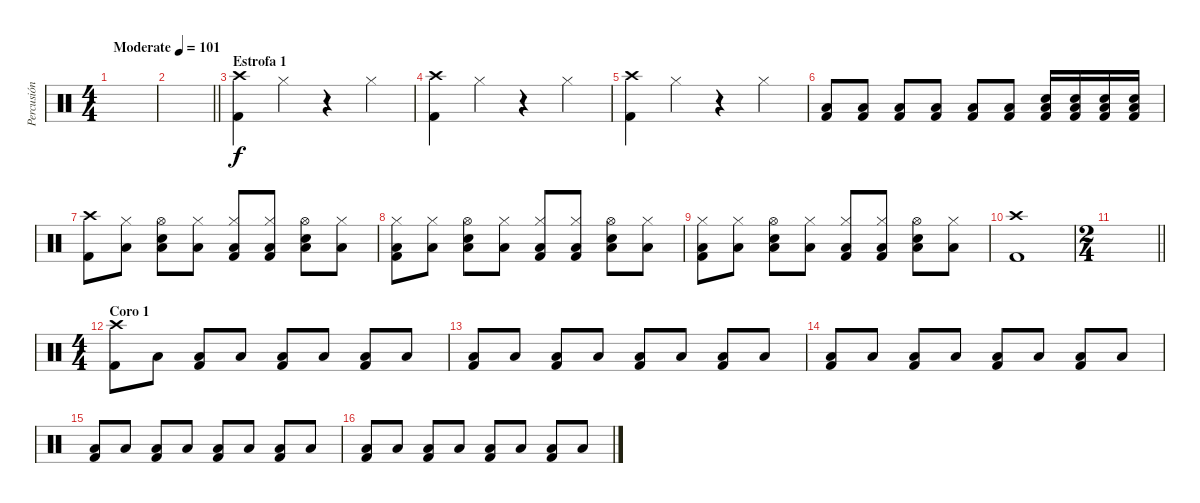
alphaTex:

\track ("Percusión" "Percusión") {instrument percussion}
\staff {score}
\articulation defaults
\ts (4 4)
\tempo (101 "Moderate")
\clef neutral
\ks c
|
\barLineRight lightlight
|
\section ("" "Estrofa 1")
("Kick (hit) 2" "Crash high (hit)").4 "Hi-Hat (closed)".4 r.4 "Hi-Hat (closed)".4 |
("Kick (hit) 2" "Crash high (hit)").4 "Hi-Hat (closed)".4 r.4 "Hi-Hat (closed)".4 |
("Kick (hit) 2" "Crash high (hit)").4 "Hi-Hat (closed)".4 r.4 "Hi-Hat (closed)".4 |
("Low Floor Tom (hit)" "Kick (hit) 2").8 ("Low Floor Tom (hit)" "Kick (hit) 2").8 ("Low Floor Tom (hit)" "Kick (hit) 2").8 ("Low Floor Tom (hit)" "Kick (hit) 2").8 ("Low Floor Tom (hit)" "Kick (hit) 2").8 ("Low Floor Tom (hit)" "Kick (hit) 2").8 ("Snare (hit) 2" "Low Floor Tom (hit)" "Kick (hit) 2").16 ("Snare (hit) 2" "Low Floor Tom (hit)" "Kick (hit) 2").16 ("Snare (hit) 2" "Low Floor Tom (hit)" "Kick (hit) 2").16 ("Snare (hit) 2" "Low Floor Tom (hit)" "Kick (hit) 2").16 |
("Kick (hit) 2" "Crash high (hit)").8 ("Low Floor Tom (hit)" "Hi-Hat (closed)").8 ("Low Floor Tom (hit)" "Hi-Hat (open)" "Snare (hit) 2").8 ("Low Floor Tom (hit)" "Hi-Hat (closed)").8 ("Low Floor Tom (hit)" "Hi-Hat (closed)" "Kick (hit) 2").8 ("Low Floor Tom (hit)" "Hi-Hat (closed)" "Kick (hit) 2").8 ("Low Floor Tom (hit)" "Hi-Hat (open)" "Snare (hit) 2").8 ("Low Floor Tom (hit)" "Hi-Hat (closed)").8 |
("Low Floor Tom (hit)" "Hi-Hat (closed)" "Kick (hit) 2").8 ("Low Floor Tom (hit)" "Hi-Hat (closed)").8 ("Low Floor Tom (hit)" "Hi-Hat (open)" "Snare (hit) 2").8 ("Low Floor Tom (hit)" "Hi-Hat (closed)").8 ("Low Floor Tom (hit)" "Hi-Hat (closed)" "Kick (hit) 2").8 ("Low Floor Tom (hit)" "Hi-Hat (closed)" "Kick (hit) 2").8 ("Low Floor Tom (hit)" "Hi-Hat (open)" "Snare (hit) 2").8 ("Low Floor Tom (hit)" "Hi-Hat (closed)").8 |
("Low Floor Tom (hit)" "Hi-Hat (closed)" "Kick (hit) 2").8 ("Low Floor Tom (hit)" "Hi-Hat (closed)").8 ("Low Floor Tom (hit)" "Hi-Hat (open)" "Snare (hit) 2").8 ("Low Floor Tom (hit)" "Hi-Hat (closed)").8 ("Low Floor Tom (hit)" "Hi-Hat (closed)" "Kick (hit) 2").8 ("Low Floor Tom (hit)" "Hi-Hat (closed)" "Kick (hit) 2").8 ("Low Floor Tom (hit)" "Hi-Hat (open)" "Snare (hit) 2").8 ("Low Floor Tom (hit)" "Hi-Hat (closed)").8 |
("Kick (hit) 2" "Crash high (hit)").1 |
\ts (2 4)
\barLineRight lightlight
|
\ts (4 4)
\section ("" "Coro 1")
("Kick (hit) 2" "Crash high (hit)").8 "Low Floor Tom (hit)".8 ("Low Floor Tom (hit)" "Kick (hit) 2").8 "Low Floor Tom (hit)".8 ("Low Floor Tom (hit)" "Kick (hit) 2").8 "Low Floor Tom (hit)".8 ("Low Floor Tom (hit)" "Kick (hit) 2").8 "Low Floor Tom (hit)".8 |
("Low Floor Tom (hit)" "Kick (hit) 2").8 "Low Floor Tom (hit)".8 ("Low Floor Tom (hit)" "Kick (hit) 2").8 "Low Floor Tom (hit)".8 ("Low Floor Tom (hit)" "Kick (hit) 2").8 "Low Floor Tom (hit)".8 ("Low Floor Tom (hit)" "Kick (hit) 2").8 "Low Floor Tom (hit)".8 |
("Low Floor Tom (hit)" "Kick (hit) 2").8 "Low Floor Tom (hit)".8 ("Low Floor Tom (hit)" "Kick (hit) 2").8 "Low Floor Tom (hit)".8 ("Low Floor Tom (hit)" "Kick (hit) 2").8 "Low Floor Tom (hit)".8 ("Low Floor Tom (hit)" "Kick (hit) 2").8 "Low Floor Tom (hit)".8 |
("Low Floor Tom (hit)" "Kick (hit) 2").8 "Low Floor Tom (hit)".8 ("Low Floor Tom (hit)" "Kick (hit) 2").8 "Low Floor Tom (hit)".8 ("Low Floor Tom (hit)" "Kick (hit) 2").8 "Low Floor Tom (hit)".8 ("Low Floor Tom (hit)" "Kick (hit) 2").8 "Low Floor Tom (hit)".8 |
("Low Floor Tom (hit)" "Kick (hit) 2").8 "Low Floor Tom (hit)".8 ("Low Floor Tom (hit)" "Kick (hit) 2").8 "Low Floor Tom (hit)".8 ("Low Floor Tom (hit)" "Kick (hit) 2").8 "Low Floor Tom (hit)".8 ("Low Floor Tom (hit)" "Kick (hit) 2").8 "Low Floor Tom (hit)".8
